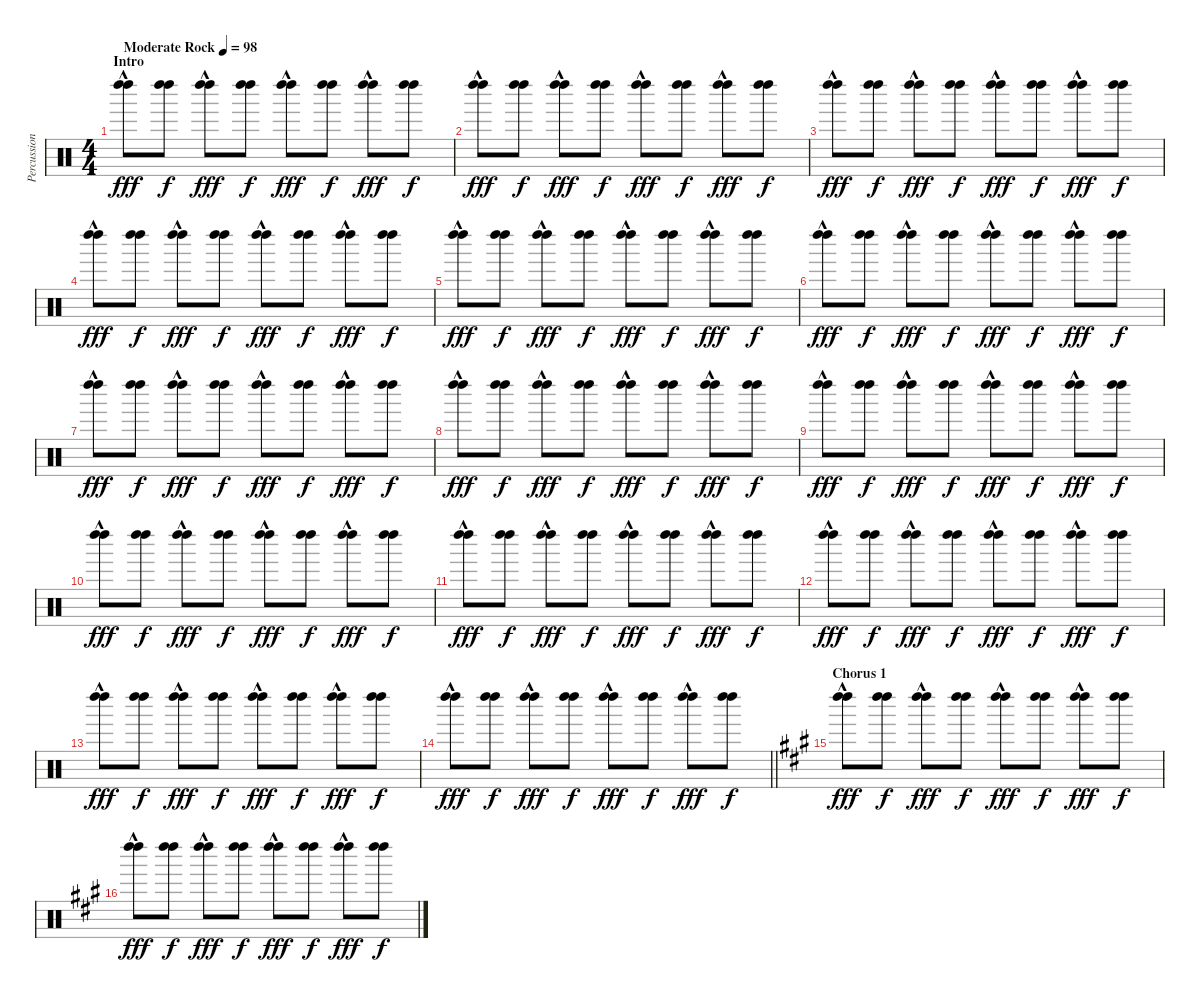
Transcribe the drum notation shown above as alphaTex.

\track ("Percussion -- Steven Tyler" "Percussion") {instrument percussion}
\staff {score}
\articulation defaults
\ts (4 4)
\section ("" "Intro")
\tempo (98 "Moderate Rock")
\clef neutral
\ks c
("Left Maraca (hit)"{hac} "Left Maraca (hit)"{hac}).8{dy fff} ("Left Maraca (hit)" "Left Maraca (hit)").8{dy f} ("Left Maraca (hit)"{hac} "Left Maraca (hit)"{hac}).8{dy fff} ("Left Maraca (hit)" "Left Maraca (hit)").8{dy f} ("Left Maraca (hit)"{hac} "Left Maraca (hit)"{hac}).8{dy fff} ("Left Maraca (hit)" "Left Maraca (hit)").8{dy f} ("Left Maraca (hit)"{hac} "Left Maraca (hit)"{hac}).8{dy fff} ("Left Maraca (hit)" "Left Maraca (hit)").8{dy f} |
("Left Maraca (hit)"{hac} "Left Maraca (hit)"{hac}).8{dy fff} ("Left Maraca (hit)" "Left Maraca (hit)").8{dy f} ("Left Maraca (hit)"{hac} "Left Maraca (hit)"{hac}).8{dy fff} ("Left Maraca (hit)" "Left Maraca (hit)").8{dy f} ("Left Maraca (hit)"{hac} "Left Maraca (hit)"{hac}).8{dy fff} ("Left Maraca (hit)" "Left Maraca (hit)").8{dy f} ("Left Maraca (hit)"{hac} "Left Maraca (hit)"{hac}).8{dy fff} ("Left Maraca (hit)" "Left Maraca (hit)").8{dy f} |
("Left Maraca (hit)"{hac} "Left Maraca (hit)"{hac}).8{dy fff} ("Left Maraca (hit)" "Left Maraca (hit)").8{dy f} ("Left Maraca (hit)"{hac} "Left Maraca (hit)"{hac}).8{dy fff} ("Left Maraca (hit)" "Left Maraca (hit)").8{dy f} ("Left Maraca (hit)"{hac} "Left Maraca (hit)"{hac}).8{dy fff} ("Left Maraca (hit)" "Left Maraca (hit)").8{dy f} ("Left Maraca (hit)"{hac} "Left Maraca (hit)"{hac}).8{dy fff} ("Left Maraca (hit)" "Left Maraca (hit)").8{dy f} |
("Left Maraca (hit)"{hac} "Left Maraca (hit)"{hac}).8{dy fff} ("Left Maraca (hit)" "Left Maraca (hit)").8{dy f} ("Left Maraca (hit)"{hac} "Left Maraca (hit)"{hac}).8{dy fff} ("Left Maraca (hit)" "Left Maraca (hit)").8{dy f} ("Left Maraca (hit)"{hac} "Left Maraca (hit)"{hac}).8{dy fff} ("Left Maraca (hit)" "Left Maraca (hit)").8{dy f} ("Left Maraca (hit)"{hac} "Left Maraca (hit)"{hac}).8{dy fff} ("Left Maraca (hit)" "Left Maraca (hit)").8{dy f} |
("Left Maraca (hit)"{hac} "Left Maraca (hit)"{hac}).8{dy fff} ("Left Maraca (hit)" "Left Maraca (hit)").8{dy f} ("Left Maraca (hit)"{hac} "Left Maraca (hit)"{hac}).8{dy fff} ("Left Maraca (hit)" "Left Maraca (hit)").8{dy f} ("Left Maraca (hit)"{hac} "Left Maraca (hit)"{hac}).8{dy fff} ("Left Maraca (hit)" "Left Maraca (hit)").8{dy f} ("Left Maraca (hit)"{hac} "Left Maraca (hit)"{hac}).8{dy fff} ("Left Maraca (hit)" "Left Maraca (hit)").8{dy f} |
("Left Maraca (hit)"{hac} "Left Maraca (hit)"{hac}).8{dy fff} ("Left Maraca (hit)" "Left Maraca (hit)").8{dy f} ("Left Maraca (hit)"{hac} "Left Maraca (hit)"{hac}).8{dy fff} ("Left Maraca (hit)" "Left Maraca (hit)").8{dy f} ("Left Maraca (hit)"{hac} "Left Maraca (hit)"{hac}).8{dy fff} ("Left Maraca (hit)" "Left Maraca (hit)").8{dy f} ("Left Maraca (hit)"{hac} "Left Maraca (hit)"{hac}).8{dy fff} ("Left Maraca (hit)" "Left Maraca (hit)").8{dy f} |
("Left Maraca (hit)"{hac} "Left Maraca (hit)"{hac}).8{dy fff} ("Left Maraca (hit)" "Left Maraca (hit)").8{dy f} ("Left Maraca (hit)"{hac} "Left Maraca (hit)"{hac}).8{dy fff} ("Left Maraca (hit)" "Left Maraca (hit)").8{dy f} ("Left Maraca (hit)"{hac} "Left Maraca (hit)"{hac}).8{dy fff} ("Left Maraca (hit)" "Left Maraca (hit)").8{dy f} ("Left Maraca (hit)"{hac} "Left Maraca (hit)"{hac}).8{dy fff} ("Left Maraca (hit)" "Left Maraca (hit)").8{dy f} |
("Left Maraca (hit)"{hac} "Left Maraca (hit)"{hac}).8{dy fff} ("Left Maraca (hit)" "Left Maraca (hit)").8{dy f} ("Left Maraca (hit)"{hac} "Left Maraca (hit)"{hac}).8{dy fff} ("Left Maraca (hit)" "Left Maraca (hit)").8{dy f} ("Left Maraca (hit)"{hac} "Left Maraca (hit)"{hac}).8{dy fff} ("Left Maraca (hit)" "Left Maraca (hit)").8{dy f} ("Left Maraca (hit)"{hac} "Left Maraca (hit)"{hac}).8{dy fff} ("Left Maraca (hit)" "Left Maraca (hit)").8{dy f} |
("Left Maraca (hit)"{hac} "Left Maraca (hit)"{hac}).8{dy fff} ("Left Maraca (hit)" "Left Maraca (hit)").8{dy f} ("Left Maraca (hit)"{hac} "Left Maraca (hit)"{hac}).8{dy fff} ("Left Maraca (hit)" "Left Maraca (hit)").8{dy f} ("Left Maraca (hit)"{hac} "Left Maraca (hit)"{hac}).8{dy fff} ("Left Maraca (hit)" "Left Maraca (hit)").8{dy f} ("Left Maraca (hit)"{hac} "Left Maraca (hit)"{hac}).8{dy fff} ("Left Maraca (hit)" "Left Maraca (hit)").8{dy f} |
("Left Maraca (hit)"{hac} "Left Maraca (hit)"{hac}).8{dy fff} ("Left Maraca (hit)" "Left Maraca (hit)").8{dy f} ("Left Maraca (hit)"{hac} "Left Maraca (hit)"{hac}).8{dy fff} ("Left Maraca (hit)" "Left Maraca (hit)").8{dy f} ("Left Maraca (hit)"{hac} "Left Maraca (hit)"{hac}).8{dy fff} ("Left Maraca (hit)" "Left Maraca (hit)").8{dy f} ("Left Maraca (hit)"{hac} "Left Maraca (hit)"{hac}).8{dy fff} ("Left Maraca (hit)" "Left Maraca (hit)").8{dy f} |
("Left Maraca (hit)"{hac} "Left Maraca (hit)"{hac}).8{dy fff} ("Left Maraca (hit)" "Left Maraca (hit)").8{dy f} ("Left Maraca (hit)"{hac} "Left Maraca (hit)"{hac}).8{dy fff} ("Left Maraca (hit)" "Left Maraca (hit)").8{dy f} ("Left Maraca (hit)"{hac} "Left Maraca (hit)"{hac}).8{dy fff} ("Left Maraca (hit)" "Left Maraca (hit)").8{dy f} ("Left Maraca (hit)"{hac} "Left Maraca (hit)"{hac}).8{dy fff} ("Left Maraca (hit)" "Left Maraca (hit)").8{dy f} |
("Left Maraca (hit)"{hac} "Left Maraca (hit)"{hac}).8{dy fff} ("Left Maraca (hit)" "Left Maraca (hit)").8{dy f} ("Left Maraca (hit)"{hac} "Left Maraca (hit)"{hac}).8{dy fff} ("Left Maraca (hit)" "Left Maraca (hit)").8{dy f} ("Left Maraca (hit)"{hac} "Left Maraca (hit)"{hac}).8{dy fff} ("Left Maraca (hit)" "Left Maraca (hit)").8{dy f} ("Left Maraca (hit)"{hac} "Left Maraca (hit)"{hac}).8{dy fff} ("Left Maraca (hit)" "Left Maraca (hit)").8{dy f} |
("Left Maraca (hit)"{hac} "Left Maraca (hit)"{hac}).8{dy fff} ("Left Maraca (hit)" "Left Maraca (hit)").8{dy f} ("Left Maraca (hit)"{hac} "Left Maraca (hit)"{hac}).8{dy fff} ("Left Maraca (hit)" "Left Maraca (hit)").8{dy f} ("Left Maraca (hit)"{hac} "Left Maraca (hit)"{hac}).8{dy fff} ("Left Maraca (hit)" "Left Maraca (hit)").8{dy f} ("Left Maraca (hit)"{hac} "Left Maraca (hit)"{hac}).8{dy fff} ("Left Maraca (hit)" "Left Maraca (hit)").8{dy f} |
\barLineRight lightlight
("Left Maraca (hit)"{hac} "Left Maraca (hit)"{hac}).8{dy fff} ("Left Maraca (hit)" "Left Maraca (hit)").8{dy f} ("Left Maraca (hit)"{hac} "Left Maraca (hit)"{hac}).8{dy fff} ("Left Maraca (hit)" "Left Maraca (hit)").8{dy f} ("Left Maraca (hit)"{hac} "Left Maraca (hit)"{hac}).8{dy fff} ("Left Maraca (hit)" "Left Maraca (hit)").8{dy f} ("Left Maraca (hit)"{hac} "Left Maraca (hit)"{hac}).8{dy fff} ("Left Maraca (hit)" "Left Maraca (hit)").8{dy f} |
\section ("" "Chorus 1")
\ks a
("Left Maraca (hit)"{hac} "Left Maraca (hit)"{hac}).8{dy fff} ("Left Maraca (hit)" "Left Maraca (hit)").8{dy f} ("Left Maraca (hit)"{hac} "Left Maraca (hit)"{hac}).8{dy fff} ("Left Maraca (hit)" "Left Maraca (hit)").8{dy f} ("Left Maraca (hit)"{hac} "Left Maraca (hit)"{hac}).8{dy fff} ("Left Maraca (hit)" "Left Maraca (hit)").8{dy f} ("Left Maraca (hit)"{hac} "Left Maraca (hit)"{hac}).8{dy fff} ("Left Maraca (hit)" "Left Maraca (hit)").8{dy f} |
("Left Maraca (hit)"{hac} "Left Maraca (hit)"{hac}).8{dy fff} ("Left Maraca (hit)" "Left Maraca (hit)").8{dy f} ("Left Maraca (hit)"{hac} "Left Maraca (hit)"{hac}).8{dy fff} ("Left Maraca (hit)" "Left Maraca (hit)").8{dy f} ("Left Maraca (hit)"{hac} "Left Maraca (hit)"{hac}).8{dy fff} ("Left Maraca (hit)" "Left Maraca (hit)").8{dy f} ("Left Maraca (hit)"{hac} "Left Maraca (hit)"{hac}).8{dy fff} ("Left Maraca (hit)" "Left Maraca (hit)").8{dy f}
